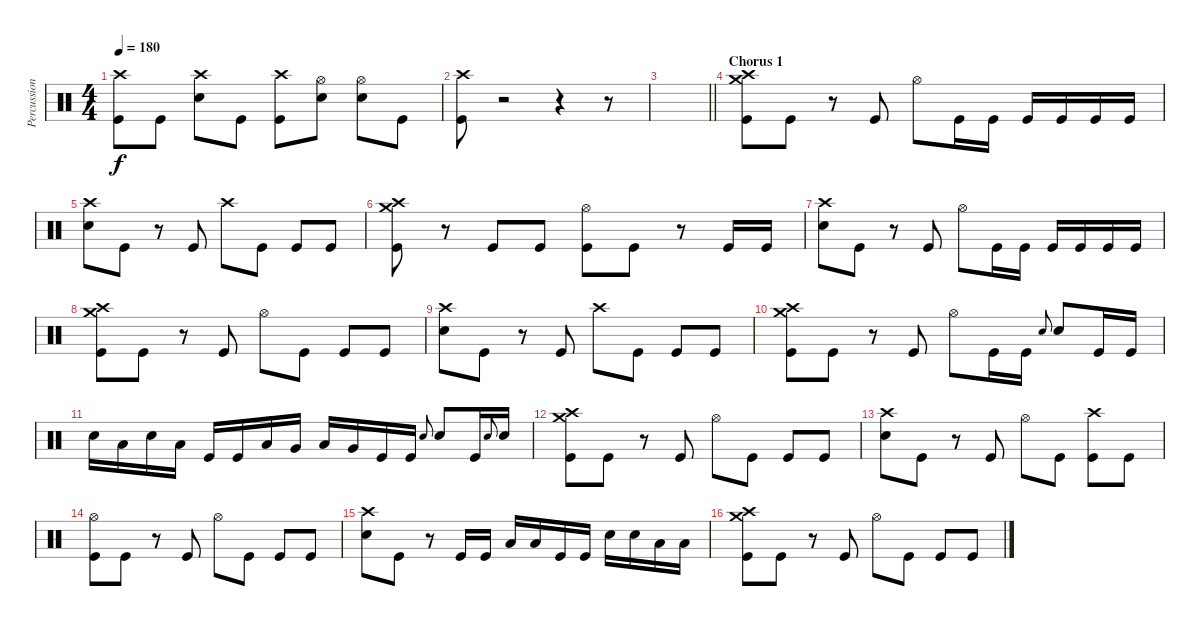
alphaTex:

\track ("Percussion" "Percussion") {instrument percussion}
\staff {score}
\articulation defaults
\ts (4 4)
\tempo 180
\clef neutral
\ks c
("Crash high (hit)" "Kick (hit)").8{dy f} "Kick (hit)".8 ("Crash high (hit)" "Electric Snare (hit)").8 "Kick (hit)".8 ("Crash high (hit)" "Kick (hit)").8 ("Hi-Hat (open)" "Electric Snare (hit)").8 ("Hi-Hat (open)" "Electric Snare (hit)").8 "Kick (hit)".8 |
("Crash high (hit)" "Kick (hit)").8 r.2{volume 0} r.4{volume 13} r.8 |
\barLineRight lightlight
|
\section ("" "Chorus 1")
("Crash medium (hit)" "Crash high (hit)" "Kick (hit)").8 "Kick (hit)".8 r.8 "Kick (hit)".8 "Hi-Hat (open)".8 "Kick (hit)".16 "Kick (hit)".16 "Kick (hit)".16 "Kick (hit)".16 "Kick (hit)".16 "Kick (hit)".16 |
("Crash high (hit)" "Electric Snare (hit)").8 "Kick (hit)".8 r.8 "Kick (hit)".8 "Crash high (hit)".8 "Kick (hit)".8 "Kick (hit)".8 "Kick (hit)".8 |
("Crash medium (hit)" "Crash high (hit)" "Kick (hit)").8 r.8 "Kick (hit)".8 "Kick (hit)".8 ("Hi-Hat (open)" "Kick (hit)").8 "Kick (hit)".8 r.8 "Kick (hit)".16 "Kick (hit)".16 |
("Crash high (hit)" "Electric Snare (hit)").8 "Kick (hit)".8 r.8 "Kick (hit)".8 "Hi-Hat (open)".8 "Kick (hit)".16 "Kick (hit)".16 "Kick (hit)".16 "Kick (hit)".16 "Kick (hit)".16 "Kick (hit)".16 |
("Crash medium (hit)" "Crash high (hit)" "Kick (hit)").8 "Kick (hit)".8 r.8 "Kick (hit)".8 "Hi-Hat (open)".8 "Kick (hit)".8 "Kick (hit)".8 "Kick (hit)".8 |
("Crash high (hit)" "Electric Snare (hit)").8 "Kick (hit)".8 r.8 "Kick (hit)".8 "Crash high (hit)".8 "Kick (hit)".8 "Kick (hit)".8 "Kick (hit)".8 |
("Crash medium (hit)" "Crash high (hit)" "Kick (hit)").8 "Kick (hit)".8 r.8 "Kick (hit)".8 "Hi-Hat (open)".8 "Kick (hit)".16 "Kick (hit)".16 "Electric Snare (hit)".8{gr onbeat} "Electric Snare (hit)".8 "Kick (hit)".16 "Kick (hit)".16 |
"Electric Snare (hit)".16 "Low Tom (hit)".16 "Electric Snare (hit)".16 "Low Tom (hit)".16 "Kick (hit)".16 "Kick (hit)".16 "Low Tom (hit)".16 "Very Low Tom (hit)".16 "Low Tom (hit)".16 "Very Low Tom (hit)".16 "Kick (hit)".16 "Kick (hit)".16 "Electric Snare (hit)".8{gr onbeat} "Electric Snare (hit)".8 "Kick (hit)".16 "Electric Snare (hit)".8{gr onbeat} "Electric Snare (hit)".16 |
("Crash medium (hit)" "Crash high (hit)" "Kick (hit)").8 "Kick (hit)".8 r.8 "Kick (hit)".8 "Hi-Hat (open)".8 "Kick (hit)".8 "Kick (hit)".8 "Kick (hit)".8 |
("Crash high (hit)" "Electric Snare (hit)").8 "Kick (hit)".8 r.8 "Kick (hit)".8 "Hi-Hat (open)".8 "Kick (hit)".8 ("Crash high (hit)" "Kick (hit)").8 "Kick (hit)".8 |
("Hi-Hat (open)" "Kick (hit)").8 "Kick (hit)".8 r.8 "Kick (hit)".8 "Hi-Hat (open)".8 "Kick (hit)".8 "Kick (hit)".8 "Kick (hit)".8 |
("Crash high (hit)" "Electric Snare (hit)").8 "Kick (hit)".8 r.8 "Kick (hit)".16 "Kick (hit)".16 "Low Tom (hit)".16 "Low Tom (hit)".16 "Kick (hit)".16 "Kick (hit)".16 "Electric Snare (hit)".16 "Electric Snare (hit)".16 "Low Tom (hit)".16 "Low Tom (hit)".16 |
("Crash medium (hit)" "Crash high (hit)" "Kick (hit)").8 "Kick (hit)".8 r.8 "Kick (hit)".8 "Hi-Hat (open)".8 "Kick (hit)".8 "Kick (hit)".8 "Kick (hit)".8
